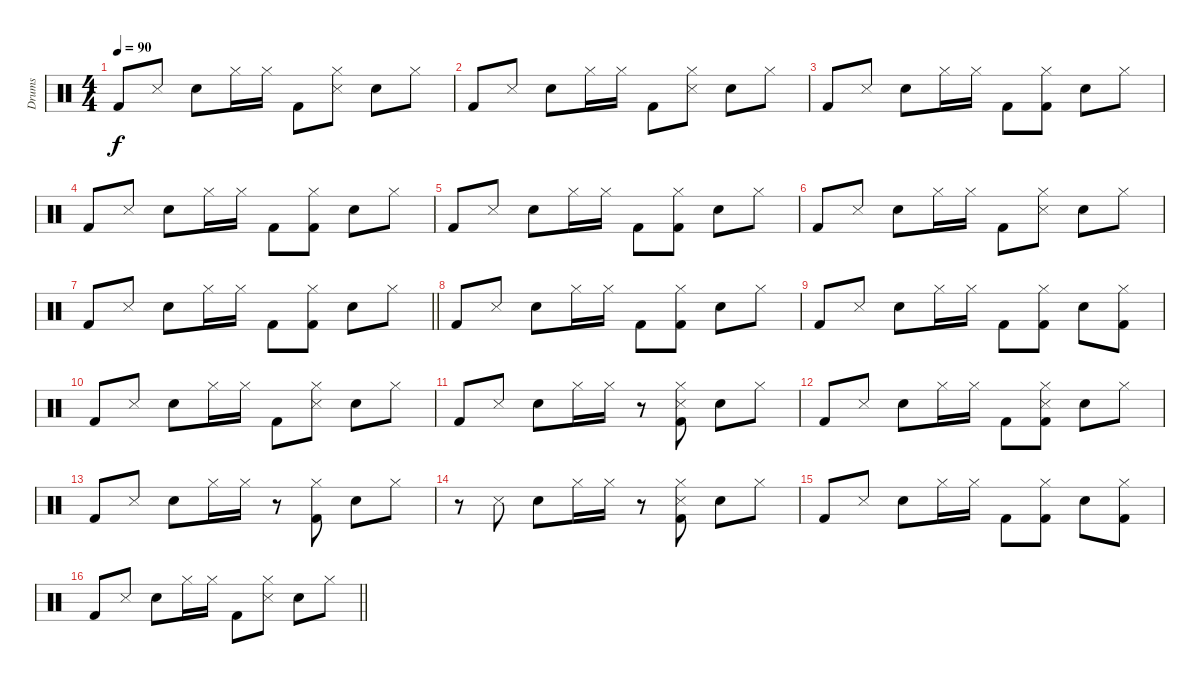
\track ("Drums" "Drums") {instrument percussion}
\staff {score}
\articulation defaults
\ts (4 4)
\tempo 90
\clef neutral
\ks c "Kick (hit) 2".8{dy f} "Snare (side stick) 3".8 "Snare (hit) 2".8 "Hi-Hat (closed)".16 "Hi-Hat (closed)".16 "Kick (hit) 2".8
("Hi-Hat (closed)" "Snare (side stick) 3").8 "Snare (hit) 2".8 "Hi-Hat (closed)".8 |
"Kick (hit) 2".8 "Snare (side stick) 3".8 "Snare (hit) 2".8 "Hi-Hat (closed)".16 "Hi-Hat (closed)".16 "Kick (hit) 2".8 ("Hi-Hat (closed)" "Snare (side stick) 3").8 "Snare (hit) 2".8 "Hi-Hat (closed)".8 |
"Kick (hit) 2".8 "Snare (side stick) 3".8 "Snare (hit) 2".8 "Hi-Hat (closed)".16 "Hi-Hat (closed)".16 "Kick (hit) 2".8 ("Hi-Hat (closed)" "Kick (hit) 2").8 "Snare (hit) 2".8 "Hi-Hat (closed)".8 |
"Kick (hit) 2".8 "Snare (side stick) 3".8 "Snare (hit) 2".8 "Hi-Hat (closed)".16 "Hi-Hat (closed)".16 "Kick (hit) 2".8 ("Hi-Hat (closed)" "Kick (hit) 2").8 "Snare (hit) 2".8 "Hi-Hat (closed)".8 |
"Kick (hit) 2".8 "Snare (side stick) 3".8 "Snare (hit) 2".8 "Hi-Hat (closed)".16 "Hi-Hat (closed)".16 "Kick (hit) 2".8 ("Hi-Hat (closed)" "Kick (hit) 2").8 "Snare (hit) 2".8 "Hi-Hat (closed)".8 |
"Kick (hit) 2".8 "Snare (side stick) 3".8 "Snare (hit) 2".8 "Hi-Hat (closed)".16 "Hi-Hat (closed)".16 "Kick (hit) 2".8 ("Hi-Hat (closed)" "Snare (side stick) 3").8 "Snare (hit) 2".8 "Hi-Hat (closed)".8 |
\barLineRight lightlight "Kick (hit) 2".8 "Snare (side stick) 3".8 "Snare (hit) 2".8 "Hi-Hat (closed)".16 "Hi-Hat (closed)".16 "Kick (hit) 2".8
("Hi-Hat (closed)" "Kick (hit) 2").8 "Snare (hit) 2".8 "Hi-Hat (closed)".8 |
"Kick (hit) 2".8 "Snare (side stick) 3".8 "Snare (hit) 2".8 "Hi-Hat (closed)".16 "Hi-Hat (closed)".16 "Kick (hit) 2".8 ("Hi-Hat (closed)" "Kick (hit) 2").8 "Snare (hit) 2".8 "Hi-Hat (closed)".8 |
"Kick (hit) 2".8 "Snare (side stick) 3".8 "Snare (hit) 2".8 "Hi-Hat (closed)".16 "Hi-Hat (closed)".16 "Kick (hit) 2".8 ("Hi-Hat (closed)" "Kick (hit) 2").8 "Snare (hit) 2".8 ("Hi-Hat (closed)" "Kick (hit) 2").8 |
"Kick (hit) 2".8 "Snare (side stick) 3".8 "Snare (hit) 2".8 "Hi-Hat (closed)".16 "Hi-Hat (closed)".16 "Kick (hit) 2".8 ("Hi-Hat (closed)" "Snare (side stick) 3").8 "Snare (hit) 2".8 "Hi-Hat (closed)".8 |
"Kick (hit) 2".8 "Snare (side stick) 3".8 "Snare (hit) 2".8 "Hi-Hat (closed)".16 "Hi-Hat (closed)".16 r.8 ("Hi-Hat (closed)" "Snare (side stick) 3" "Kick (hit) 2").8 "Snare (hit) 2".8 "Hi-Hat (closed)".8 |
"Kick (hit) 2".8 "Snare (side stick) 3".8 "Snare (hit) 2".8 "Hi-Hat (closed)".16 "Hi-Hat (closed)".16 "Kick (hit) 2".8 ("Hi-Hat (closed)" "Snare (side stick) 3" "Kick (hit) 2").8 "Snare (hit) 2".8 "Hi-Hat (closed)".8 |
"Kick (hit) 2".8 "Snare (side stick) 3".8 "Snare (hit) 2".8 "Hi-Hat (closed)".16 "Hi-Hat (closed)".16 r.8 ("Hi-Hat (closed)" "Kick (hit) 2").8 "Snare (hit) 2".8 "Hi-Hat (closed)".8 |
r.8 "Snare (side stick) 3".8 "Snare (hit) 2".8 "Hi-Hat (closed)".16 "Hi-Hat (closed)".16 r.8 ("Hi-Hat (closed)" "Snare (side stick) 3" "Kick (hit) 2").8 "Snare (hit) 2".8 "Hi-Hat (closed)".8 |
"Kick (hit) 2".8 "Snare (side stick) 3".8 "Snare (hit) 2".8 "Hi-Hat (closed)".16 "Hi-Hat (closed)".16 "Kick (hit) 2".8 ("Hi-Hat (closed)" "Kick (hit) 2").8 "Snare (hit) 2".8 ("Hi-Hat (closed)" "Kick (hit) 2").8 |
\barLineRight lightlight "Kick (hit) 2".8 "Snare (side stick) 3".8 "Snare (hit) 2".8 "Hi-Hat (closed)".16 "Hi-Hat (closed)".16 "Kick (hit) 2".8
("Hi-Hat (closed)" "Snare (side stick) 3").8 "Snare (hit) 2".8 "Hi-Hat (closed)".8
